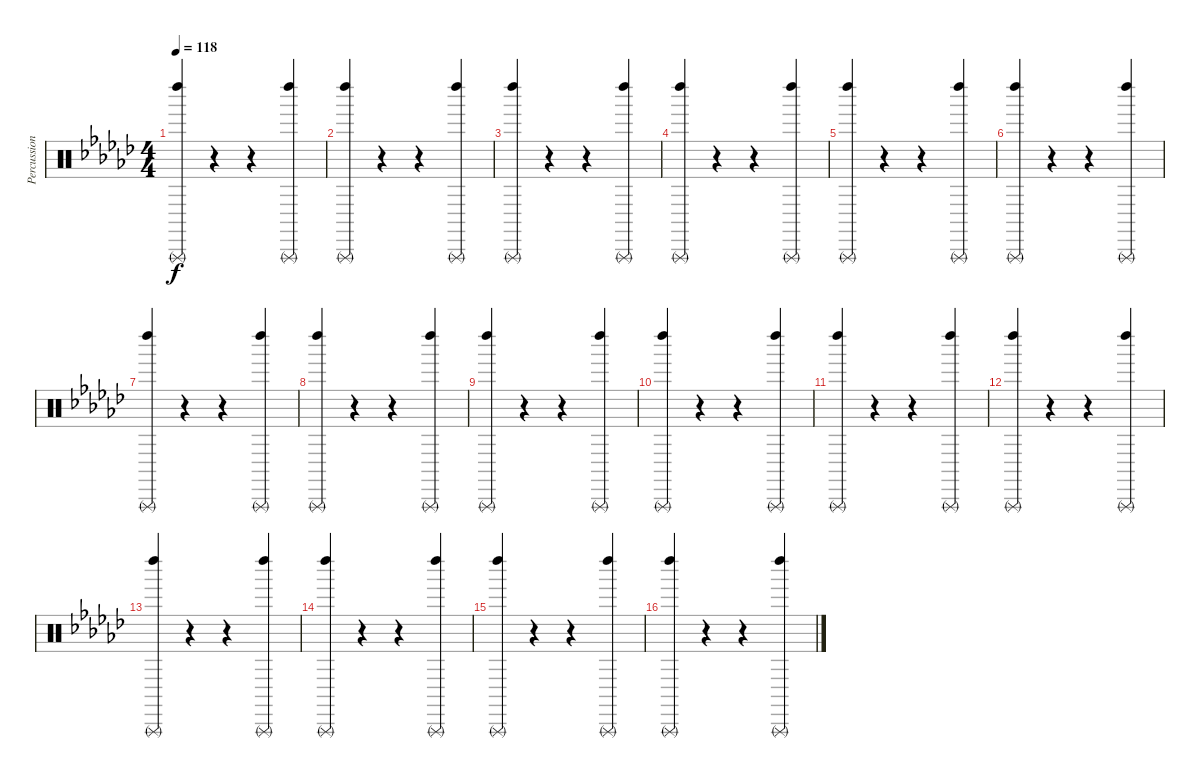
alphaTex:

\track ("Percussions 1" "Percussion") {instrument percussion}
\staff {score}
\articulation defaults
\ts (4 4)
\tempo 118
\clef neutral
\ks ebminor
("Triangle (rnute)" "Left Maraca (hit)").4{dy f} r.4 r.4 ("Triangle (rnute)" "Left Maraca (hit)").4 |
("Triangle (rnute)" "Left Maraca (hit)").4 r.4 r.4 ("Triangle (rnute)" "Left Maraca (hit)").4 |
("Triangle (rnute)" "Left Maraca (hit)").4 r.4 r.4 ("Triangle (rnute)" "Left Maraca (hit)").4 |
("Triangle (rnute)" "Left Maraca (hit)").4 r.4 r.4 ("Triangle (rnute)" "Left Maraca (hit)").4 |
("Triangle (rnute)" "Left Maraca (hit)").4 r.4 r.4 ("Triangle (rnute)" "Left Maraca (hit)").4 |
("Triangle (rnute)" "Left Maraca (hit)").4 r.4 r.4 ("Triangle (rnute)" "Left Maraca (hit)").4 |
("Triangle (rnute)" "Left Maraca (hit)").4 r.4 r.4 ("Triangle (rnute)" "Left Maraca (hit)").4 |
("Triangle (rnute)" "Left Maraca (hit)").4 r.4 r.4 ("Triangle (rnute)" "Left Maraca (hit)").4 |
("Triangle (rnute)" "Left Maraca (hit)").4 r.4 r.4 ("Triangle (rnute)" "Left Maraca (hit)").4 |
("Triangle (rnute)" "Left Maraca (hit)").4 r.4 r.4 ("Triangle (rnute)" "Left Maraca (hit)").4 |
("Triangle (rnute)" "Left Maraca (hit)").4 r.4 r.4 ("Triangle (rnute)" "Left Maraca (hit)").4 |
("Triangle (rnute)" "Left Maraca (hit)").4 r.4 r.4 ("Triangle (rnute)" "Left Maraca (hit)").4 |
("Triangle (rnute)" "Left Maraca (hit)").4 r.4 r.4 ("Triangle (rnute)" "Left Maraca (hit)").4 |
("Triangle (rnute)" "Left Maraca (hit)").4 r.4 r.4 ("Triangle (rnute)" "Left Maraca (hit)").4 |
("Triangle (rnute)" "Left Maraca (hit)").4 r.4 r.4 ("Triangle (rnute)" "Left Maraca (hit)").4 |
("Triangle (rnute)" "Left Maraca (hit)").4 r.4 r.4 ("Triangle (rnute)" "Left Maraca (hit)").4
